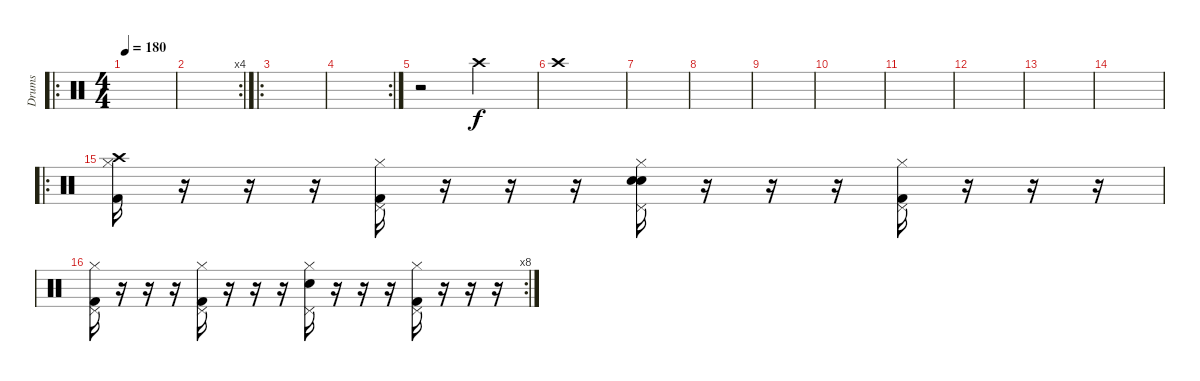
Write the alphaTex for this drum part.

\track ("Drums" "Drums") {instrument percussion}
\staff {score}
\articulation defaults
\ro
\ts (4 4)
\tempo 180
\clef neutral
\ks c
|
\rc 4
|
\ro
|
\rc 2
|
r.2{volume 0} "Crash high (hit)".2{volume 16} |
"Crash high (hit)".1 |
|
|
|
|
|
|
|
|
\ro
("Crash high (hit)" "Hi-Hat (closed)" "Kick (hit) 2").16 r.16 r.16 r.16 ("Pedal Hi-Hat (hit)" "Hi-Hat (closed)" "Kick (hit) 2").16 r.16 r.16 r.16 ("Pedal Hi-Hat (hit)" "Hi-Hat (closed)" "Snare (hit)" "Electric Snare (hit)").16 r.16 r.16 r.16 ("Pedal Hi-Hat (hit)" "Hi-Hat (closed)" "Kick (hit) 2").16 r.16 r.16 r.16 |
\rc 8
("Pedal Hi-Hat (hit)" "Hi-Hat (closed)" "Kick (hit) 2").16 r.16 r.16 r.16 ("Pedal Hi-Hat (hit)" "Hi-Hat (closed)" "Kick (hit) 2").16 r.16 r.16 r.16 ("Pedal Hi-Hat (hit)" "Hi-Hat (closed)" "Electric Snare (hit)").16 r.16 r.16 r.16 ("Pedal Hi-Hat (hit)" "Hi-Hat (closed)" "Kick (hit) 2").16 r.16 r.16 r.16
